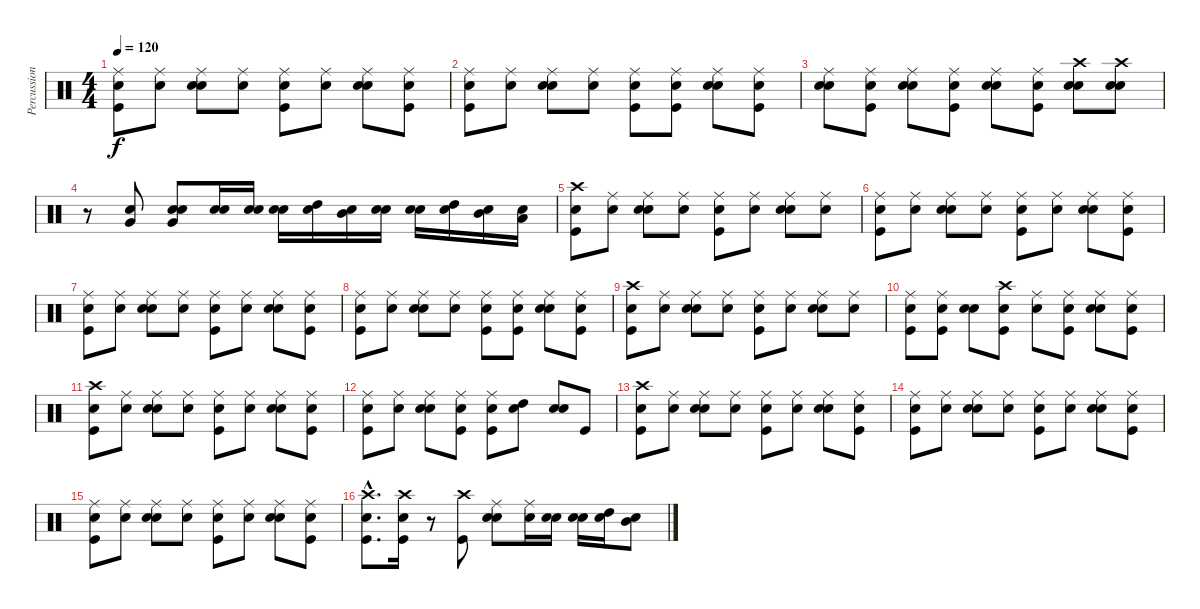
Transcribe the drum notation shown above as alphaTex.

\track ("Percussion" "Percussion") {instrument percussion}
\staff {score}
\articulation defaults
\ts (4 4)
\tempo 120
\clef neutral
\ks c
("Snare (hit)" "Kick (hit)" "Ride (middle)").8{dy f} ("Snare (hit)" "Ride (middle)").8 ("Snare (hit)" "Electric Snare (hit)" "Ride (middle)").8 ("Snare (hit)" "Ride (middle)").8 ("Snare (hit)" "Kick (hit)" "Ride (middle)").8 ("Snare (hit)" "Ride (middle)").8 ("Snare (hit)" "Electric Snare (hit)" "Ride (middle)").8 ("Snare (hit)" "Kick (hit)" "Ride (middle)").8 |
("Snare (hit)" "Kick (hit)" "Ride (middle)").8 ("Snare (hit)" "Ride (middle)").8 ("Snare (hit)" "Electric Snare (hit)" "Ride (middle)").8 ("Snare (hit)" "Ride (middle)").8 ("Snare (hit)" "Kick (hit)" "Ride (middle)").8 ("Snare (hit)" "Kick (hit)" "Ride (middle)").8 ("Snare (hit)" "Electric Snare (hit)" "Ride (middle)").8 ("Snare (hit)" "Kick (hit)" "Ride (middle)").8 |
("Snare (hit)" "Electric Snare (hit)" "Ride (middle)").8 ("Snare (hit)" "Kick (hit)" "Ride (middle)").8 ("Snare (hit)" "Electric Snare (hit)" "Ride (middle)").8 ("Snare (hit)" "Kick (hit)" "Ride (middle)").8 ("Snare (hit)" "Electric Snare (hit)" "Ride (middle)").8 ("Snare (hit)" "Kick (hit)" "Ride (middle)").8 ("Snare (hit)" "Electric Snare (hit)" "Crash high (hit)").8 ("Snare (hit)" "Electric Snare (hit)" "Crash high (hit)").8 |
r.8 ("Electric Snare (hit)" "Very Low Tom (hit)").8 ("Snare (hit)" "Electric Snare (hit)" "Very Low Tom (hit)").8 ("Snare (hit)" "Electric Snare (hit)").16 ("Snare (hit)" "Electric Snare (hit)").16 ("Snare (hit)" "Electric Snare (hit)").16 ("Snare (hit)" "High Tom (hit)").16 ("Snare (hit)" "Mid Tom (hit)").16 ("Snare (hit)" "Electric Snare (hit)").16 ("Snare (hit)" "Electric Snare (hit)").16 ("Snare (hit)" "High Tom (hit)").16 ("Snare (hit)" "Mid Tom (hit)").16 ("Snare (hit)" "Low Tom (hit)").16 |
("Snare (hit)" "Kick (hit)" "Crash high (hit)").8 ("Snare (hit)" "Ride (middle)").8 ("Snare (hit)" "Electric Snare (hit)" "Ride (middle)").8 ("Snare (hit)" "Ride (middle)").8 ("Snare (hit)" "Kick (hit)" "Ride (middle)").8 ("Snare (hit)" "Ride (middle)").8 ("Snare (hit)" "Electric Snare (hit)" "Ride (middle)").8 ("Snare (hit)" "Ride (middle)").8 |
("Snare (hit)" "Kick (hit)" "Ride (middle)").8 ("Snare (hit)" "Ride (middle)").8 ("Snare (hit)" "Electric Snare (hit)" "Ride (middle)").8 ("Snare (hit)" "Ride (middle)").8 ("Snare (hit)" "Kick (hit)" "Ride (middle)").8 ("Snare (hit)" "Ride (middle)").8 ("Snare (hit)" "Electric Snare (hit)" "Ride (middle)").8 ("Snare (hit)" "Kick (hit)" "Ride (middle)").8 |
("Snare (hit)" "Kick (hit)" "Ride (middle)").8 ("Snare (hit)" "Ride (middle)").8 ("Snare (hit)" "Electric Snare (hit)" "Ride (middle)").8 ("Snare (hit)" "Ride (middle)").8 ("Snare (hit)" "Kick (hit)" "Ride (middle)").8 ("Snare (hit)" "Ride (middle)").8 ("Snare (hit)" "Electric Snare (hit)" "Ride (middle)").8 ("Snare (hit)" "Kick (hit)" "Ride (middle)").8 |
("Snare (hit)" "Kick (hit)" "Ride (middle)").8 ("Snare (hit)" "Ride (middle)").8 ("Snare (hit)" "Electric Snare (hit)" "Ride (middle)").8 ("Snare (hit)" "Ride (middle)").8 ("Snare (hit)" "Kick (hit)" "Ride (middle)").8 ("Snare (hit)" "Kick (hit)" "Ride (middle)").8 ("Snare (hit)" "Electric Snare (hit)" "Ride (middle)").8 ("Snare (hit)" "Kick (hit)" "Ride (middle)").8 |
("Snare (hit)" "Kick (hit)" "Crash high (hit)").8 ("Snare (hit)" "Ride (middle)").8 ("Snare (hit)" "Electric Snare (hit)" "Ride (middle)").8 ("Snare (hit)" "Ride (middle)").8 ("Snare (hit)" "Kick (hit)" "Ride (middle)").8 ("Snare (hit)" "Ride (middle)").8 ("Snare (hit)" "Electric Snare (hit)" "Ride (middle)").8 ("Snare (hit)" "Ride (middle)").8 |
("Snare (hit)" "Kick (hit)" "Ride (middle)").8 ("Snare (hit)" "Kick (hit)" "Ride (middle)").8 ("Snare (hit)" "Electric Snare (hit)").8 ("Snare (hit)" "Kick (hit)" "Crash high (hit)").8 ("Snare (hit)" "Ride (middle)").8 ("Snare (hit)" "Kick (hit)" "Ride (middle)").8 ("Snare (hit)" "Electric Snare (hit)" "Ride (middle)").8 ("Snare (hit)" "Kick (hit)" "Ride (middle)").8 |
("Snare (hit)" "Kick (hit)" "Crash high (hit)").8 ("Snare (hit)" "Ride (middle)").8 ("Snare (hit)" "Electric Snare (hit)" "Ride (middle)").8 ("Snare (hit)" "Ride (middle)").8 ("Snare (hit)" "Kick (hit)" "Ride (middle)").8 ("Snare (hit)" "Ride (middle)").8 ("Snare (hit)" "Electric Snare (hit)" "Ride (middle)").8 ("Snare (hit)" "Kick (hit)" "Ride (middle)").8 |
("Snare (hit)" "Kick (hit)" "Ride (middle)").8 ("Snare (hit)" "Ride (middle)").8 ("Snare (hit)" "Electric Snare (hit)" "Ride (middle)").8 ("Snare (hit)" "Kick (hit)" "Ride (middle)").8 ("Snare (hit)" "Kick (hit)" "Ride (middle)").8 ("Snare (hit)" "High Tom (hit)").8 ("Snare (hit)" "Electric Snare (hit)").8 "Kick (hit)".8 |
("Snare (hit)" "Kick (hit)" "Crash high (hit)").8 ("Snare (hit)" "Ride (middle)").8 ("Snare (hit)" "Electric Snare (hit)" "Ride (middle)").8 ("Snare (hit)" "Ride (middle)").8 ("Snare (hit)" "Kick (hit)" "Ride (middle)").8 ("Snare (hit)" "Ride (middle)").8 ("Snare (hit)" "Electric Snare (hit)" "Ride (middle)").8 ("Snare (hit)" "Kick (hit)" "Ride (middle)").8 |
("Snare (hit)" "Kick (hit)" "Ride (middle)").8 ("Snare (hit)" "Ride (middle)").8 ("Snare (hit)" "Electric Snare (hit)" "Ride (middle)").8 ("Snare (hit)" "Ride (middle)").8 ("Snare (hit)" "Kick (hit)" "Ride (middle)").8 ("Snare (hit)" "Ride (middle)").8 ("Snare (hit)" "Electric Snare (hit)" "Ride (middle)").8 ("Snare (hit)" "Kick (hit)" "Ride (middle)").8 |
("Snare (hit)" "Kick (hit)" "Ride (middle)").8 ("Snare (hit)" "Ride (middle)").8 ("Snare (hit)" "Electric Snare (hit)" "Ride (middle)").8 ("Snare (hit)" "Ride (middle)").8 ("Snare (hit)" "Kick (hit)" "Ride (middle)").8 ("Snare (hit)" "Ride (middle)").8 ("Snare (hit)" "Electric Snare (hit)" "Ride (middle)").8 ("Snare (hit)" "Kick (hit)" "Ride (middle)").8 |
("Snare (hit)"{hac} "Kick (hit)"{hac} "Crash high (hit)"{hac}).8{d} ("Snare (hit)" "Kick (hit)" "Crash high (hit)").16 r.8 ("Kick (hit)" "Crash high (hit)").8 ("Snare (hit)" "Electric Snare (hit)" "Ride (middle)").8 ("Snare (hit)" "Ride (middle)").16 ("Snare (hit)" "Electric Snare (hit)").16 ("Snare (hit)" "Electric Snare (hit)").16 ("Snare (hit)" "High Tom (hit)").16 ("Snare (hit)" "Mid Tom (hit)").8
